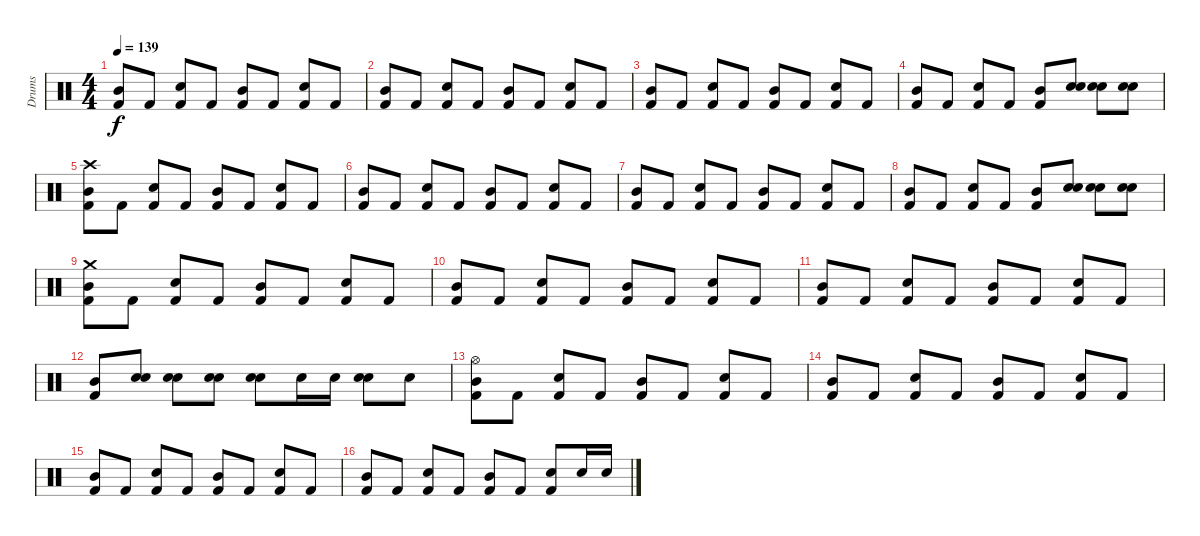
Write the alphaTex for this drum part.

\track ("Drums" "Drums") {instrument percussion}
\staff {score}
\articulation defaults
\ts (4 4)
\tempo 139
\clef neutral
\ks c
("Kick (hit) 2" "Mid Tom (hit)").8{dy f} "Kick (hit) 2".8 ("Electric Snare (hit)" "Kick (hit) 2").8 "Kick (hit) 2".8 ("Kick (hit) 2" "Mid Tom (hit)").8 "Kick (hit) 2".8 ("Electric Snare (hit)" "Kick (hit) 2").8 "Kick (hit) 2".8 |
("Kick (hit) 2" "Mid Tom (hit)").8 "Kick (hit) 2".8 ("Electric Snare (hit)" "Kick (hit) 2").8 "Kick (hit) 2".8 ("Kick (hit) 2" "Mid Tom (hit)").8 "Kick (hit) 2".8 ("Electric Snare (hit)" "Kick (hit) 2").8 "Kick (hit) 2".8 |
("Kick (hit) 2" "Mid Tom (hit)").8 "Kick (hit) 2".8 ("Electric Snare (hit)" "Kick (hit) 2").8 "Kick (hit) 2".8 ("Kick (hit) 2" "Mid Tom (hit)").8 "Kick (hit) 2".8 ("Electric Snare (hit)" "Kick (hit) 2").8 "Kick (hit) 2".8 |
("Kick (hit) 2" "Mid Tom (hit)").8 "Kick (hit) 2".8 ("Electric Snare (hit)" "Kick (hit) 2").8 "Kick (hit) 2".8 ("Kick (hit) 2" "Mid Tom (hit)").8 ("Electric Snare (hit)" "Electric Snare (hit)").8 ("Electric Snare (hit)" "Electric Snare (hit)").8 ("Electric Snare (hit)" "Electric Snare (hit)").8 |
("Crash high (hit)" "Kick (hit) 2" "Mid Tom (hit)").8 "Kick (hit) 2".8 ("Electric Snare (hit)" "Kick (hit) 2").8 "Kick (hit) 2".8 ("Kick (hit) 2" "Mid Tom (hit)").8 "Kick (hit) 2".8 ("Electric Snare (hit)" "Kick (hit) 2").8 "Kick (hit) 2".8 |
("Kick (hit) 2" "Mid Tom (hit)").8 "Kick (hit) 2".8 ("Electric Snare (hit)" "Kick (hit) 2").8 "Kick (hit) 2".8 ("Kick (hit) 2" "Mid Tom (hit)").8 "Kick (hit) 2".8 ("Electric Snare (hit)" "Kick (hit) 2").8 "Kick (hit) 2".8 |
("Kick (hit) 2" "Mid Tom (hit)").8 "Kick (hit) 2".8 ("Electric Snare (hit)" "Kick (hit) 2").8 "Kick (hit) 2".8 ("Kick (hit) 2" "Mid Tom (hit)").8 "Kick (hit) 2".8 ("Electric Snare (hit)" "Kick (hit) 2").8 "Kick (hit) 2".8 |
("Kick (hit) 2" "Mid Tom (hit)").8 "Kick (hit) 2".8 ("Electric Snare (hit)" "Kick (hit) 2").8 "Kick (hit) 2".8 ("Kick (hit) 2" "Mid Tom (hit)").8 ("Electric Snare (hit)" "Electric Snare (hit)").8 ("Electric Snare (hit)" "Electric Snare (hit)").8 ("Electric Snare (hit)" "Electric Snare (hit)").8 |
("Crash medium (hit)" "Kick (hit) 2" "Mid Tom (hit)").8 "Kick (hit) 2".8 ("Electric Snare (hit)" "Kick (hit) 2").8 "Kick (hit) 2".8 ("Kick (hit) 2" "Mid Tom (hit)").8 "Kick (hit) 2".8 ("Electric Snare (hit)" "Kick (hit) 2").8 "Kick (hit) 2".8 |
("Kick (hit) 2" "Mid Tom (hit)").8 "Kick (hit) 2".8 ("Electric Snare (hit)" "Kick (hit) 2").8 "Kick (hit) 2".8 ("Kick (hit) 2" "Mid Tom (hit)").8 "Kick (hit) 2".8 ("Electric Snare (hit)" "Kick (hit) 2").8 "Kick (hit) 2".8 |
("Kick (hit) 2" "Mid Tom (hit)").8 "Kick (hit) 2".8 ("Electric Snare (hit)" "Kick (hit) 2").8 "Kick (hit) 2".8 ("Kick (hit) 2" "Mid Tom (hit)").8 "Kick (hit) 2".8 ("Electric Snare (hit)" "Kick (hit) 2").8 "Kick (hit) 2".8 |
("Kick (hit) 2" "Mid Tom (hit)").8 ("Electric Snare (hit)" "Electric Snare (hit)").8 ("Electric Snare (hit)" "Electric Snare (hit)").8 ("Electric Snare (hit)" "Electric Snare (hit)").8 ("Electric Snare (hit)" "Electric Snare (hit)").8 "Electric Snare (hit)".16 "Electric Snare (hit)".16 ("Electric Snare (hit)" "Electric Snare (hit)").8 "Electric Snare (hit)".8 |
("Kick (hit) 2" "Mid Tom (hit)" "Hi-Hat (open)").8 "Kick (hit) 2".8 ("Electric Snare (hit)" "Kick (hit) 2").8 "Kick (hit) 2".8 ("Kick (hit) 2" "Mid Tom (hit)").8 "Kick (hit) 2".8 ("Electric Snare (hit)" "Kick (hit) 2").8 "Kick (hit) 2".8 |
("Kick (hit) 2" "Mid Tom (hit)").8 "Kick (hit) 2".8 ("Electric Snare (hit)" "Kick (hit) 2").8 "Kick (hit) 2".8 ("Kick (hit) 2" "Mid Tom (hit)").8 "Kick (hit) 2".8 ("Electric Snare (hit)" "Kick (hit) 2").8 "Kick (hit) 2".8 |
("Kick (hit) 2" "Mid Tom (hit)").8 "Kick (hit) 2".8 ("Electric Snare (hit)" "Kick (hit) 2").8 "Kick (hit) 2".8 ("Kick (hit) 2" "Mid Tom (hit)").8 "Kick (hit) 2".8 ("Electric Snare (hit)" "Kick (hit) 2").8 "Kick (hit) 2".8 |
("Kick (hit) 2" "Mid Tom (hit)").8 "Kick (hit) 2".8 ("Electric Snare (hit)" "Kick (hit) 2").8 "Kick (hit) 2".8 ("Kick (hit) 2" "Mid Tom (hit)").8 "Kick (hit) 2".8 ("Electric Snare (hit)" "Kick (hit) 2").8 "Electric Snare (hit)".16 "Electric Snare (hit)".16
